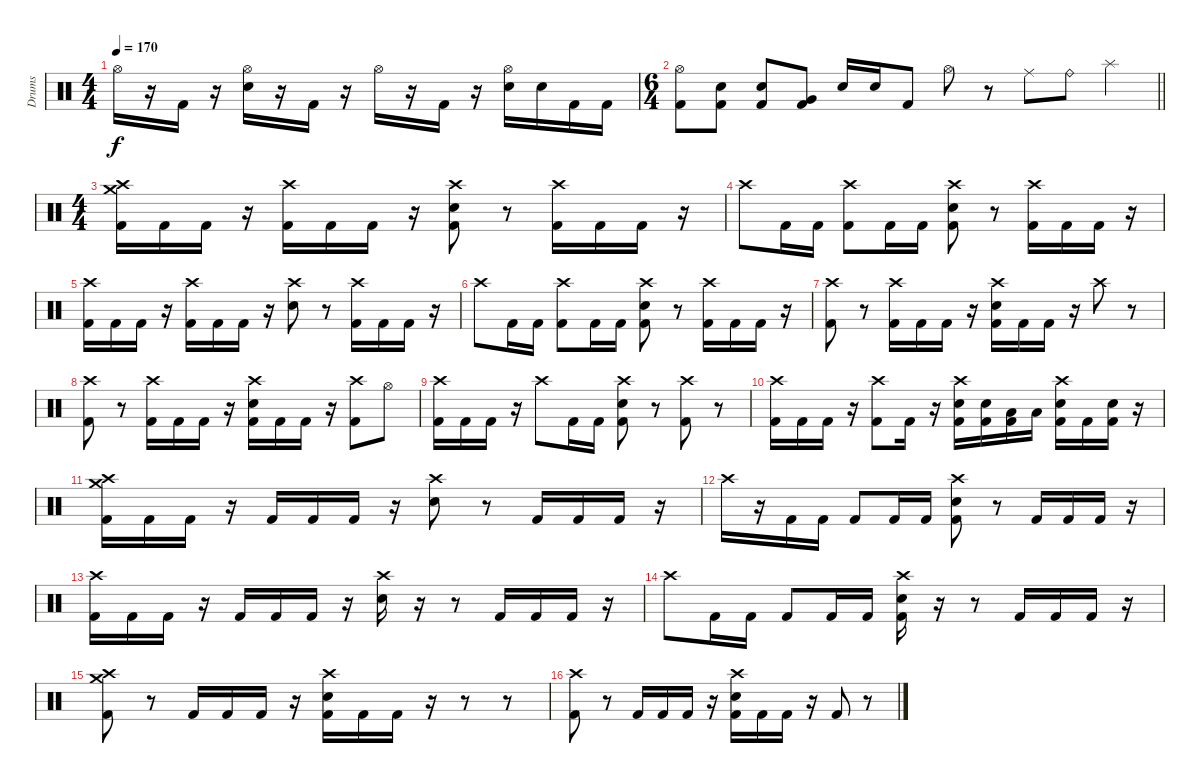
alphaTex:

\track ("Drums" "Drums") {instrument percussion}
\staff
\articulation defaults
\ts (4 4)
\tempo 170
\clef neutral
\ks c "Hi-Hat (open)".16{dy f}
r.16 "Kick (hit) 2".16 r.16 ("Hi-Hat (open)" "Electric Snare (hit)").16 r.16 "Kick (hit) 2".16 r.16 "Hi-Hat (open)".16 r.16 "Kick (hit) 2".16 r.16 ("Hi-Hat (open)" "Electric Snare (hit)").16 "Electric Snare (hit)".16 "Kick (hit) 2".16 "Kick (hit) 2".16 |
\ts (6 4)
\barLineRight lightlight
("Hi-Hat (open)" "Kick (hit) 2").8 ("Electric Snare (hit)" "Kick (hit) 2").8 ("Electric Snare (hit)" "Kick (hit) 2").8 ("Very Low Tom (hit)" "Kick (hit) 2").8 "Electric Snare (hit)".16 "Electric Snare (hit)".16 "Kick (hit) 2".8 "Hi-Hat (open)".8 r.8 "Ride (middle)".8 "Ride (bell)".8 "Splash (hit)".4 |
\ts (4 4)
("Crash medium (hit)" "Crash high (hit)" "Kick (hit) 2").16 "Kick (hit) 2".16 "Kick (hit) 2".16 r.16 ("Crash high (hit)" "Kick (hit) 2").16 "Kick (hit) 2".16 "Kick (hit) 2".16 r.16 ("Crash high (hit)" "Electric Snare (hit)" "Kick (hit) 2").8 r.8 ("Crash high (hit)" "Kick (hit) 2").16 "Kick (hit) 2".16 "Kick (hit) 2".16 r.16 |
"Crash high (hit)".8 "Kick (hit) 2".16 "Kick (hit) 2".16 ("Crash high (hit)" "Kick (hit) 2").8 "Kick (hit) 2".16 "Kick (hit) 2".16 ("Crash high (hit)" "Electric Snare (hit)" "Kick (hit) 2").8 r.8 ("Crash high (hit)" "Kick (hit) 2").16 "Kick (hit) 2".16 "Kick (hit) 2".16 r.16 |
("Crash high (hit)" "Kick (hit) 2").16 "Kick (hit) 2".16 "Kick (hit) 2".16 r.16 ("Crash high (hit)" "Kick (hit) 2").16 "Kick (hit) 2".16 "Kick (hit) 2".16 r.16 ("Crash high (hit)" "Electric Snare (hit)").8 r.8 ("Crash high (hit)" "Kick (hit) 2").16 "Kick (hit) 2".16 "Kick (hit) 2".16 r.16 |
"Crash high (hit)".8 "Kick (hit) 2".16 "Kick (hit) 2".16 ("Crash high (hit)" "Kick (hit) 2").8 "Kick (hit) 2".16 "Kick (hit) 2".16 ("Crash high (hit)" "Electric Snare (hit)" "Kick (hit) 2").8 r.8 ("Crash high (hit)" "Kick (hit) 2").16 "Kick (hit) 2".16 "Kick (hit) 2".16 r.16 |
("Crash high (hit)" "Kick (hit) 2").8 r.8 ("Crash high (hit)" "Kick (hit) 2").16 "Kick (hit) 2".16 "Kick (hit) 2".16 r.16 ("Crash high (hit)" "Electric Snare (hit)" "Kick (hit) 2").16 "Kick (hit) 2".16 "Kick (hit) 2".16 r.16 "Crash high (hit)".8 r.8 |
("Crash high (hit)" "Kick (hit) 2").8 r.8 ("Crash high (hit)" "Kick (hit) 2").16 "Kick (hit) 2".16 "Kick (hit) 2".16 r.16 ("Crash high (hit)" "Electric Snare (hit)" "Kick (hit) 2").16 "Kick (hit) 2".16 "Kick (hit) 2".16 r.16 ("Crash high (hit)" "Kick (hit) 2").8 "Hi-Hat (open)".8 |
("Crash high (hit)" "Kick (hit) 2").16 "Kick (hit) 2".16 "Kick (hit) 2".16 r.16 "Crash high (hit)".8 "Kick (hit) 2".16 "Kick (hit) 2".16 ("Crash high (hit)" "Electric Snare (hit)" "Kick (hit) 2").8 r.8 ("Crash high (hit)" "Kick (hit) 2").8 r.8 |
("Crash high (hit)" "Kick (hit) 2").16 "Kick (hit) 2".16 "Kick (hit) 2".16 r.16 ("Crash high (hit)" "Kick (hit) 2").8 "Kick (hit) 2".16 r.16 ("Crash high (hit)" "Electric Snare (hit)" "Kick (hit) 2").16 ("Electric Snare (hit)" "Kick (hit) 2").16 ("Low Tom (hit)" "Kick (hit) 2").16 "Low Tom (hit)".16 ("Crash high (hit)" "Electric Snare (hit)" "Kick (hit) 2").16 "Kick (hit) 2".16 ("Electric Snare (hit)" "Kick (hit) 2").16 r.16 |
("Crash medium (hit)" "Crash high (hit)" "Kick (hit) 2").16 "Kick (hit) 2".16 "Kick (hit) 2".16 r.16 "Kick (hit) 2".16 "Kick (hit) 2".16 "Kick (hit) 2".16 r.16 ("Crash high (hit)" "Electric Snare (hit)").8 r.8 "Kick (hit) 2".16 "Kick (hit) 2".16 "Kick (hit) 2".16 r.16 |
"Crash high (hit)".16 r.16 "Kick (hit) 2".16 "Kick (hit) 2".16 "Kick (hit) 2".8 "Kick (hit) 2".16 "Kick (hit) 2".16 ("Crash high (hit)" "Electric Snare (hit)" "Kick (hit) 2").8 r.8 "Kick (hit) 2".16 "Kick (hit) 2".16 "Kick (hit) 2".16 r.16 |
("Crash high (hit)" "Kick (hit) 2").16 "Kick (hit) 2".16 "Kick (hit) 2".16 r.16 "Kick (hit) 2".16 "Kick (hit) 2".16 "Kick (hit) 2".16 r.16 ("Crash high (hit)" "Electric Snare (hit)").16 r.16 r.8 "Kick (hit) 2".16 "Kick (hit) 2".16 "Kick (hit) 2".16 r.16 |
"Crash high (hit)".8 "Kick (hit) 2".16 "Kick (hit) 2".16 "Kick (hit) 2".8 "Kick (hit) 2".16 "Kick (hit) 2".16 ("Crash high (hit)" "Electric Snare (hit)" "Kick (hit) 2").16 r.16 r.8 "Kick (hit) 2".16 "Kick (hit) 2".16 "Kick (hit) 2".16 r.16 |
("Crash medium (hit)" "Crash high (hit)" "Kick (hit) 2").8 r.8 "Kick (hit) 2".16 "Kick (hit) 2".16 "Kick (hit) 2".16 r.16 ("Crash high (hit)" "Electric Snare (hit)" "Kick (hit) 2").16 "Kick (hit) 2".16 "Kick (hit) 2".16 r.16 r.8 r.8 |
("Crash high (hit)" "Kick (hit) 2").8 r.8 "Kick (hit) 2".16 "Kick (hit) 2".16 "Kick (hit) 2".16 r.16 ("Crash high (hit)" "Electric Snare (hit)" "Kick (hit) 2").16 "Kick (hit) 2".16 "Kick (hit) 2".16 r.16 "Kick (hit) 2".8 r.8
